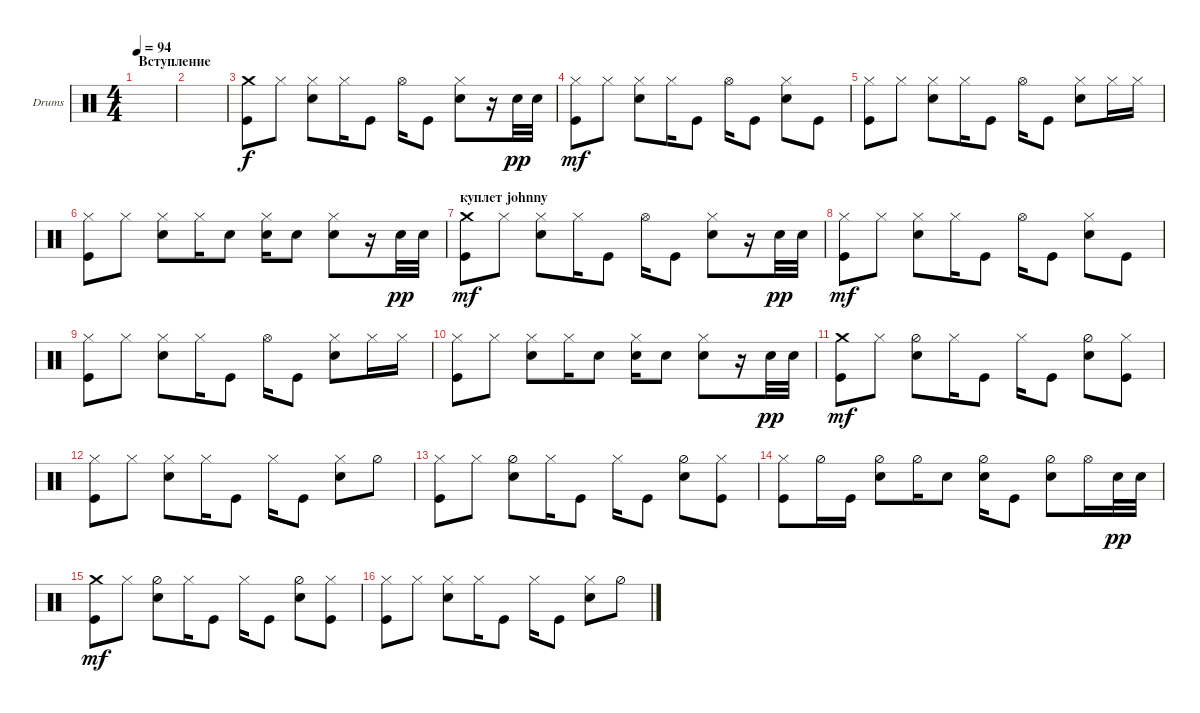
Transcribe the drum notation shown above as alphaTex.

\defaultSystemsLayout 4
\bracketExtendMode groupsimilarinstruments
\firstSystemTrackNameOrientation horizontal
\otherSystemsTrackNameOrientation horizontal
\track ("Drumkit" "Drums") {instrument percussion}
\staff {score}
\articulation defaults
\ts (4 4)
\section ("" "Вступление")
\tempo 94
\clef neutral
\ks c
|
|
("Kick (hit)" "Crash medium (hit)").8 "Hi-Hat (closed)".8 ("Snare (hit) 2" "Hi-Hat (closed)").8 "Hi-Hat (closed)".16 "Kick (hit)".8 "Hi-Hat (open)".16 "Kick (hit)".8 ("Snare (hit) 2" "Hi-Hat (closed)").8 r.16 "Snare (hit) 2".32{dy pp} "Snare (hit) 2".32 |
("Kick (hit)" "Hi-Hat (closed)").8{dy mf} "Hi-Hat (closed)".8 ("Snare (hit) 2" "Hi-Hat (closed)").8 "Hi-Hat (closed)".16 "Kick (hit)".8 "Hi-Hat (open)".16 "Kick (hit)".8 ("Snare (hit) 2" "Hi-Hat (closed)").8 "Kick (hit)".8 |
("Kick (hit)" "Hi-Hat (closed)").8 "Hi-Hat (closed)".8 ("Snare (hit) 2" "Hi-Hat (closed)").8 "Hi-Hat (closed)".16 "Kick (hit)".8 "Hi-Hat (open)".16 "Kick (hit)".8 ("Snare (hit) 2" "Hi-Hat (closed)").8 "Hi-Hat (closed)".16 "Hi-Hat (closed)".16 |
("Kick (hit)" "Hi-Hat (closed)").8 "Hi-Hat (closed)".8 ("Snare (hit) 2" "Hi-Hat (closed)").8 "Hi-Hat (closed)".16 "Snare (hit) 2".8 ("Hi-Hat (closed)" "Snare (hit) 2").16 "Snare (hit) 2".8 ("Snare (hit) 2" "Hi-Hat (closed)").8 r.16 "Snare (hit) 2".32{dy pp} "Snare (hit) 2".32 |
\section ("" "куплет johnny")
("Kick (hit)" "Crash medium (hit)").8{dy mf} "Hi-Hat (closed)".8 ("Snare (hit) 2" "Hi-Hat (closed)").8 "Hi-Hat (closed)".16 "Kick (hit)".8 "Hi-Hat (open)".16 "Kick (hit)".8 ("Snare (hit) 2" "Hi-Hat (closed)").8 r.16 "Snare (hit) 2".32{dy pp} "Snare (hit) 2".32 |
("Kick (hit)" "Hi-Hat (closed)").8{dy mf} "Hi-Hat (closed)".8 ("Snare (hit) 2" "Hi-Hat (closed)").8 "Hi-Hat (closed)".16 "Kick (hit)".8 "Hi-Hat (open)".16 "Kick (hit)".8 ("Snare (hit) 2" "Hi-Hat (closed)").8 "Kick (hit)".8 |
("Kick (hit)" "Hi-Hat (closed)").8 "Hi-Hat (closed)".8 ("Snare (hit) 2" "Hi-Hat (closed)").8 "Hi-Hat (closed)".16 "Kick (hit)".8 "Hi-Hat (open)".16 "Kick (hit)".8 ("Snare (hit) 2" "Hi-Hat (closed)").8 "Hi-Hat (closed)".16 "Hi-Hat (closed)".16 |
("Kick (hit)" "Hi-Hat (closed)").8 "Hi-Hat (closed)".8 ("Snare (hit) 2" "Hi-Hat (closed)").8 "Hi-Hat (closed)".16 "Snare (hit) 2".8 ("Hi-Hat (closed)" "Snare (hit) 2").16 "Snare (hit) 2".8 ("Snare (hit) 2" "Hi-Hat (closed)").8 r.16 "Snare (hit) 2".32{dy pp} "Snare (hit) 2".32 |
("Kick (hit)" "Crash medium (hit)").8{dy mf} "Hi-Hat (closed)".8 ("Snare (hit) 2" "Hi-Hat (half)").8 "Hi-Hat (closed)".16 "Kick (hit)".8 "Hi-Hat (closed)".16 "Kick (hit)".8 ("Snare (hit) 2" "Hi-Hat (half)").8 ("Kick (hit)" "Hi-Hat (closed)").8 |
("Kick (hit)" "Hi-Hat (closed)").8 "Hi-Hat (closed)".8 ("Snare (hit) 2" "Hi-Hat (closed)").8 "Hi-Hat (closed)".16 "Kick (hit)".8 "Hi-Hat (closed)".16 "Kick (hit)".8 ("Snare (hit) 2" "Hi-Hat (closed)").8 "Hi-Hat (half)".8 |
("Kick (hit)" "Hi-Hat (closed)").8 "Hi-Hat (closed)".8 ("Snare (hit) 2" "Hi-Hat (half)").8 "Hi-Hat (closed)".16 "Kick (hit)".8 "Hi-Hat (closed)".16 "Kick (hit)".8 ("Snare (hit) 2" "Hi-Hat (half)").8 ("Kick (hit)" "Hi-Hat (closed)").8 |
("Kick (hit)" "Hi-Hat (closed)").8 "Hi-Hat (half)".16 "Kick (hit)".16 ("Snare (hit) 2" "Hi-Hat (half)").8 "Hi-Hat (half)".16 "Snare (hit) 2".8 ("Snare (hit) 2" "Hi-Hat (half)").16 "Kick (hit)".8 ("Snare (hit) 2" "Hi-Hat (half)").8 "Hi-Hat (open)".16 "Snare (hit) 2".32{dy pp} "Snare (hit) 2".32 |
("Kick (hit)" "Crash medium (hit)").8{dy mf} "Hi-Hat (closed)".8 ("Snare (hit) 2" "Hi-Hat (half)").8 "Hi-Hat (closed)".16 "Kick (hit)".8 "Hi-Hat (closed)".16 "Kick (hit)".8 ("Snare (hit) 2" "Hi-Hat (half)").8 ("Kick (hit)" "Hi-Hat (closed)").8 |
("Kick (hit)" "Hi-Hat (closed)").8 "Hi-Hat (closed)".8 ("Snare (hit) 2" "Hi-Hat (closed)").8 "Hi-Hat (closed)".16 "Kick (hit)".8 "Hi-Hat (closed)".16 "Kick (hit)".8 ("Snare (hit) 2" "Hi-Hat (closed)").8 "Hi-Hat (half)".8
